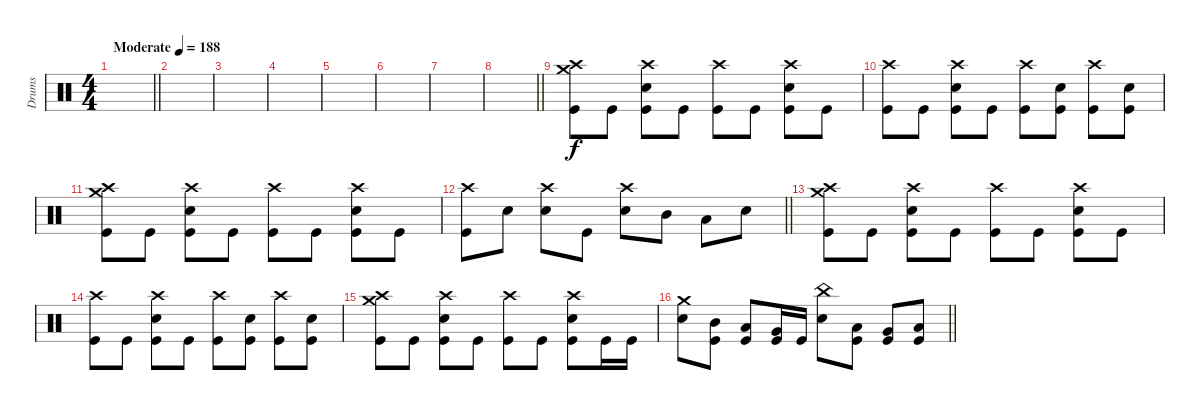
\track ("Drums" "Drums") {instrument percussion}
\staff
\articulation defaults
\ts (4 4)
\tempo (188 "Moderate")
\clef neutral
\barLineRight lightlight
\ks c
|
|
|
|
|
|
|
\barLineRight lightlight
|
\section ("" "")
("Crash high (hit)" "Crash medium (hit)" "Kick (hit)").8 "Kick (hit)".8 ("Crash high (hit)" "Electric Snare (hit)" "Kick (hit)").8 "Kick (hit)".8 ("Crash high (hit)" "Kick (hit)").8 "Kick (hit)".8 ("Crash high (hit)" "Electric Snare (hit)" "Kick (hit)").8 "Kick (hit)".8 |
("Crash high (hit)" "Kick (hit)").8 "Kick (hit)".8 ("Crash high (hit)" "Electric Snare (hit)" "Kick (hit)").8 "Kick (hit)".8 ("Crash high (hit)" "Kick (hit)").8 ("Electric Snare (hit)" "Kick (hit)").8 ("Crash high (hit)" "Kick (hit)").8 ("Electric Snare (hit)" "Kick (hit)").8 |
("Crash high (hit)" "Crash medium (hit)" "Kick (hit)").8 "Kick (hit)".8 ("Crash high (hit)" "Electric Snare (hit)" "Kick (hit)").8 "Kick (hit)".8 ("Crash high (hit)" "Kick (hit)").8 "Kick (hit)".8 ("Crash high (hit)" "Electric Snare (hit)" "Kick (hit)").8 "Kick (hit)".8 |
\barLineRight lightlight
("Crash high (hit)" "Kick (hit)").8 "Electric Snare (hit)".8 ("Crash high (hit)" "Electric Snare (hit)").8 "Kick (hit)".8 ("Crash high (hit)" "Electric Snare (hit)").8 "Mid Tom (hit)".8 "Low Tom (hit)".8 "Electric Snare (hit)".8 |
("Crash high (hit)" "Crash medium (hit)" "Kick (hit)").8 "Kick (hit)".8 ("Crash high (hit)" "Electric Snare (hit)" "Kick (hit)").8 "Kick (hit)".8 ("Crash high (hit)" "Kick (hit)").8 "Kick (hit)".8 ("Crash high (hit)" "Electric Snare (hit)" "Kick (hit)").8 "Kick (hit)".8 |
("Crash high (hit)" "Kick (hit)").8 "Kick (hit)".8 ("Crash high (hit)" "Electric Snare (hit)" "Kick (hit)").8 "Kick (hit)".8 ("Crash high (hit)" "Kick (hit)").8 ("Electric Snare (hit)" "Kick (hit)").8 ("Crash high (hit)" "Kick (hit)").8 ("Electric Snare (hit)" "Kick (hit)").8 |
("Crash high (hit)" "Crash medium (hit)" "Kick (hit)").8 "Kick (hit)".8 ("Crash high (hit)" "Electric Snare (hit)" "Kick (hit)").8 "Kick (hit)".8 ("Crash high (hit)" "Kick (hit)").8 "Kick (hit)".8 ("Crash high (hit)" "Electric Snare (hit)" "Kick (hit)").8 "Kick (hit)".16 "Kick (hit)".16 |
\barLineRight lightlight
("Crash medium (hit)" "Electric Snare (hit)").8 ("Mid Tom (hit)" "Kick (hit)").8 ("Low Tom (hit)" "Kick (hit)").8 ("Very Low Tom (hit)" "Kick (hit)").16 "Kick (hit)".16 ("China (hit)" "Electric Snare (hit)").8 ("Low Tom (hit)" "Kick (hit)").8 ("Very Low Tom (hit)" "Kick (hit)").8 ("Low Floor Tom (hit)" "Kick (hit)").8
